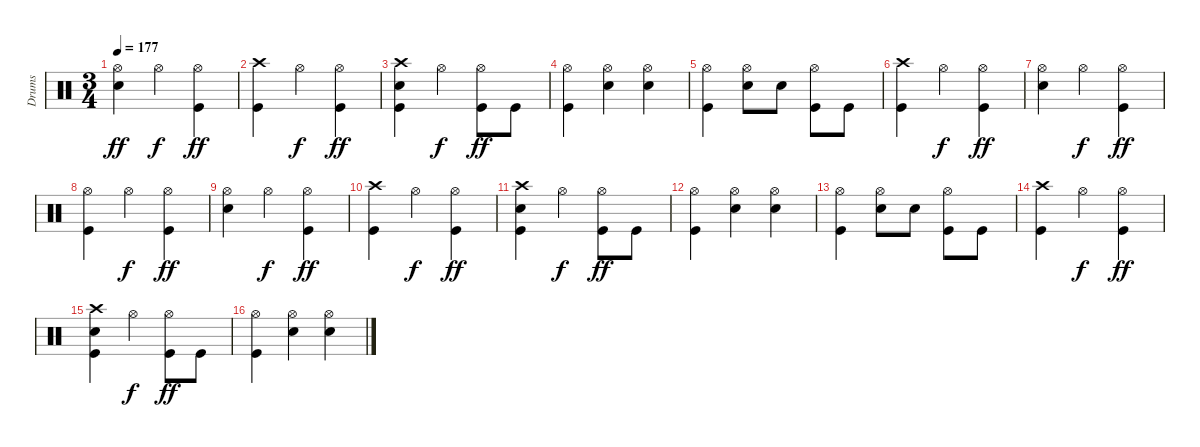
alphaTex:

\track ("Drums" "Drums") {instrument percussion}
\staff {score}
\articulation defaults
\ts (3 4)
\tempo 177
\clef neutral
\ks c
("Hi-Hat (open)" "Electric Snare (hit)").4{dy ff} "Hi-Hat (open)".4{dy f} ("Hi-Hat (open)" "Kick (hit)").4{dy ff} |
("Crash high (hit)" "Kick (hit)").4 "Hi-Hat (open)".4{dy f} ("Hi-Hat (open)" "Kick (hit)").4{dy ff} |
("Crash high (hit)" "Electric Snare (hit)" "Kick (hit)").4 "Hi-Hat (open)".4{dy f} ("Hi-Hat (open)" "Kick (hit)").8{dy ff} "Kick (hit)".8 |
("Hi-Hat (open)" "Kick (hit)").4 ("Hi-Hat (open)" "Electric Snare (hit)").4 ("Hi-Hat (open)" "Electric Snare (hit)").4 |
("Hi-Hat (open)" "Kick (hit)").4 ("Hi-Hat (open)" "Electric Snare (hit)").8 "Electric Snare (hit)".8 ("Hi-Hat (open)" "Kick (hit)").8 "Kick (hit)".8 |
("Crash high (hit)" "Kick (hit)").4 "Hi-Hat (open)".4{dy f} ("Hi-Hat (open)" "Kick (hit)").4{dy ff} |
("Hi-Hat (open)" "Electric Snare (hit)").4 "Hi-Hat (open)".4{dy f} ("Hi-Hat (open)" "Kick (hit)").4{dy ff} |
("Hi-Hat (open)" "Kick (hit)").4 "Hi-Hat (open)".4{dy f} ("Hi-Hat (open)" "Kick (hit)").4{dy ff} |
("Hi-Hat (open)" "Electric Snare (hit)").4 "Hi-Hat (open)".4{dy f} ("Hi-Hat (open)" "Kick (hit)").4{dy ff} |
("Crash high (hit)" "Kick (hit)").4 "Hi-Hat (open)".4{dy f} ("Hi-Hat (open)" "Kick (hit)").4{dy ff} |
("Crash high (hit)" "Electric Snare (hit)" "Kick (hit)").4 "Hi-Hat (open)".4{dy f} ("Hi-Hat (open)" "Kick (hit)").8{dy ff} "Kick (hit)".8 |
("Hi-Hat (open)" "Kick (hit)").4 ("Hi-Hat (open)" "Electric Snare (hit)").4 ("Hi-Hat (open)" "Electric Snare (hit)").4 |
("Hi-Hat (open)" "Kick (hit)").4 ("Hi-Hat (open)" "Electric Snare (hit)").8 "Electric Snare (hit)".8 ("Hi-Hat (open)" "Kick (hit)").8 "Kick (hit)".8 |
("Crash high (hit)" "Kick (hit)").4 "Hi-Hat (open)".4{dy f} ("Hi-Hat (open)" "Kick (hit)").4{dy ff} |
("Crash high (hit)" "Electric Snare (hit)" "Kick (hit)").4 "Hi-Hat (open)".4{dy f} ("Hi-Hat (open)" "Kick (hit)").8{dy ff} "Kick (hit)".8 |
("Hi-Hat (open)" "Kick (hit)").4 ("Hi-Hat (open)" "Electric Snare (hit)").4 ("Hi-Hat (open)" "Electric Snare (hit)").4
